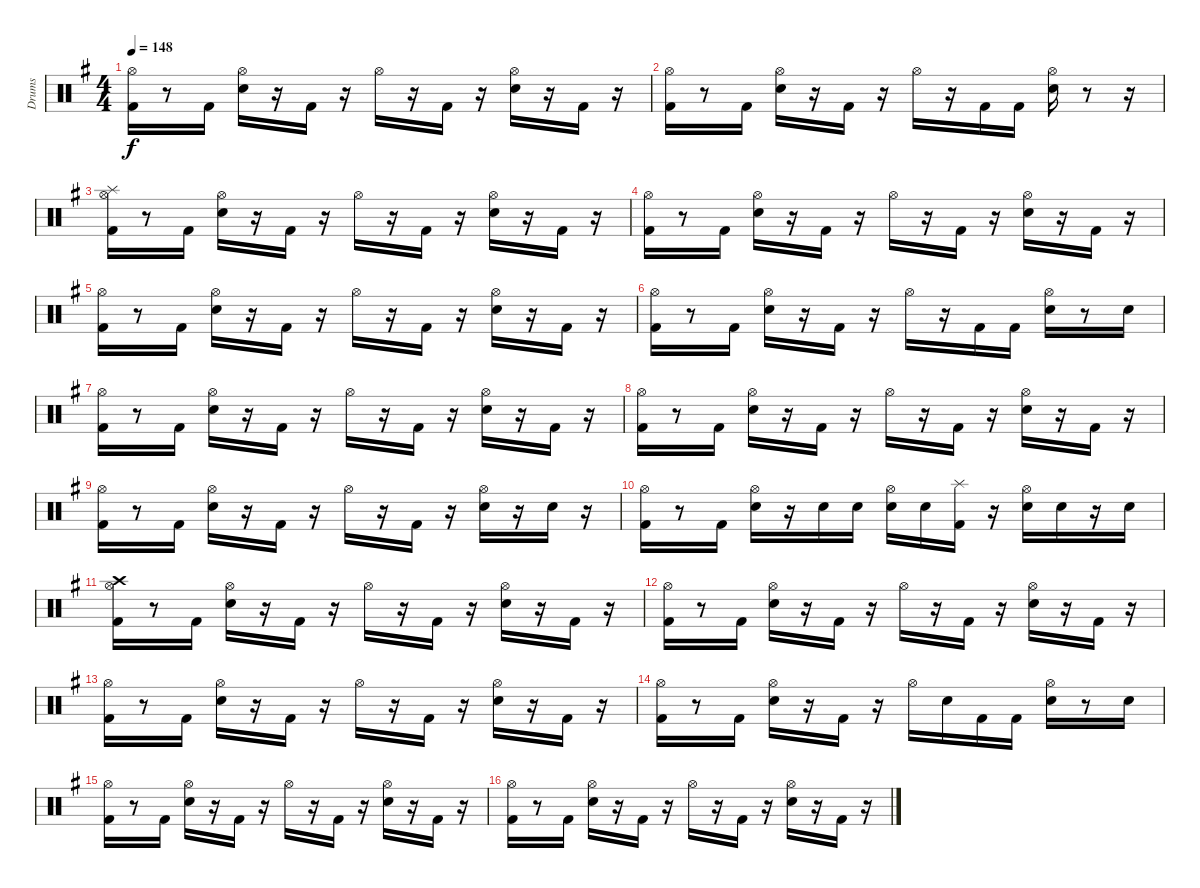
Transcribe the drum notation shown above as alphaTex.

\track ("Drums" "Drums") {instrument percussion}
\staff {score}
\articulation defaults
\ts (4 4)
\tempo 148
\clef neutral
\ks g
("Hi-Hat (open)" "Kick (hit) 2").16{dy f} r.8 "Kick (hit) 2".16 ("Hi-Hat (open)" "Snare (hit) 2").16 r.16 "Kick (hit) 2".16 r.16 "Hi-Hat (open)".16 r.16 "Kick (hit) 2".16 r.16 ("Hi-Hat (open)" "Snare (hit) 2").16 r.16 "Kick (hit) 2".16 r.16 |
("Hi-Hat (open)" "Kick (hit) 2").16 r.8 "Kick (hit) 2".16 ("Hi-Hat (open)" "Snare (hit) 2").16 r.16 "Kick (hit) 2".16 r.16 "Hi-Hat (open)".16 r.16 "Kick (hit) 2".16 "Kick (hit) 2".16 ("Hi-Hat (open)" "Snare (hit) 2").16 r.8 r.16 |
("Hi-Hat (open)" "Splash (hit)" "Kick (hit) 2").16 r.8 "Kick (hit) 2".16 ("Hi-Hat (open)" "Snare (hit) 2").16 r.16 "Kick (hit) 2".16 r.16 "Hi-Hat (open)".16 r.16 "Kick (hit) 2".16 r.16 ("Hi-Hat (open)" "Snare (hit) 2").16 r.16 "Kick (hit) 2".16 r.16 |
("Hi-Hat (open)" "Kick (hit) 2").16 r.8 "Kick (hit) 2".16 ("Hi-Hat (open)" "Snare (hit) 2").16 r.16 "Kick (hit) 2".16 r.16 "Hi-Hat (open)".16 r.16 "Kick (hit) 2".16 r.16 ("Hi-Hat (open)" "Snare (hit) 2").16 r.16 "Kick (hit) 2".16 r.16 |
("Hi-Hat (open)" "Kick (hit) 2").16 r.8 "Kick (hit) 2".16 ("Hi-Hat (open)" "Snare (hit) 2").16 r.16 "Kick (hit) 2".16 r.16 "Hi-Hat (open)".16 r.16 "Kick (hit) 2".16 r.16 ("Hi-Hat (open)" "Snare (hit) 2").16 r.16 "Kick (hit) 2".16 r.16 |
("Hi-Hat (open)" "Kick (hit) 2").16 r.8 "Kick (hit) 2".16 ("Hi-Hat (open)" "Snare (hit) 2").16 r.16 "Kick (hit) 2".16 r.16 "Hi-Hat (open)".16 r.16 "Kick (hit) 2".16 "Kick (hit) 2".16 ("Hi-Hat (open)" "Snare (hit) 2").16 r.8 "Snare (hit) 2".16 |
("Hi-Hat (open)" "Kick (hit) 2").16 r.8 "Kick (hit) 2".16 ("Hi-Hat (open)" "Snare (hit) 2").16 r.16 "Kick (hit) 2".16 r.16 "Hi-Hat (open)".16 r.16 "Kick (hit) 2".16 r.16 ("Hi-Hat (open)" "Snare (hit) 2").16 r.16 "Kick (hit) 2".16 r.16 |
("Hi-Hat (open)" "Kick (hit) 2").16 r.8 "Kick (hit) 2".16 ("Hi-Hat (open)" "Snare (hit) 2").16 r.16 "Kick (hit) 2".16 r.16 "Hi-Hat (open)".16 r.16 "Kick (hit) 2".16 r.16 ("Hi-Hat (open)" "Snare (hit) 2").16 r.16 "Kick (hit) 2".16 r.16 |
("Hi-Hat (open)" "Kick (hit) 2").16 r.8 "Kick (hit) 2".16 ("Hi-Hat (open)" "Snare (hit) 2").16 r.16 "Kick (hit) 2".16 r.16 "Hi-Hat (open)".16 r.16 "Kick (hit) 2".16 r.16 ("Hi-Hat (open)" "Snare (hit) 2").16 r.16 "Snare (hit) 2".16 r.16 |
("Hi-Hat (open)" "Kick (hit) 2").16 r.8 "Kick (hit) 2".16 ("Hi-Hat (open)" "Snare (hit) 2").16 r.16 "Snare (hit) 2".16 "Snare (hit) 2".16 ("Hi-Hat (open)" "Snare (hit) 2").16 "Snare (hit) 2".16 ("Splash (hit)" "Kick (hit) 2").16 r.16 ("Hi-Hat (open)" "Snare (hit) 2").16 "Snare (hit) 2".16 r.16 "Snare (hit) 2".16 |
("Hi-Hat (open)" "Crash high (hit)" "Kick (hit) 2").16 r.8 "Kick (hit) 2".16 ("Hi-Hat (open)" "Snare (hit) 2").16 r.16 "Kick (hit) 2".16 r.16 "Hi-Hat (open)".16 r.16 "Kick (hit) 2".16 r.16 ("Hi-Hat (open)" "Snare (hit) 2").16 r.16 "Kick (hit) 2".16 r.16 |
("Hi-Hat (open)" "Kick (hit) 2").16 r.8 "Kick (hit) 2".16 ("Hi-Hat (open)" "Snare (hit) 2").16 r.16 "Kick (hit) 2".16 r.16 "Hi-Hat (open)".16 r.16 "Kick (hit) 2".16 r.16 ("Hi-Hat (open)" "Snare (hit) 2").16 r.16 "Kick (hit) 2".16 r.16 |
("Hi-Hat (open)" "Kick (hit) 2").16 r.8 "Kick (hit) 2".16 ("Hi-Hat (open)" "Snare (hit) 2").16 r.16 "Kick (hit) 2".16 r.16 "Hi-Hat (open)".16 r.16 "Kick (hit) 2".16 r.16 ("Hi-Hat (open)" "Snare (hit) 2").16 r.16 "Kick (hit) 2".16 r.16 |
("Hi-Hat (open)" "Kick (hit) 2").16 r.8 "Kick (hit) 2".16 ("Hi-Hat (open)" "Snare (hit) 2").16 r.16 "Kick (hit) 2".16 r.16 "Hi-Hat (open)".16 "Snare (hit) 2".16 "Kick (hit) 2".16 "Kick (hit) 2".16 ("Hi-Hat (open)" "Snare (hit) 2").16 r.8 "Snare (hit) 2".16 |
("Hi-Hat (open)" "Kick (hit) 2").16 r.8 "Kick (hit) 2".16 ("Hi-Hat (open)" "Snare (hit) 2").16 r.16 "Kick (hit) 2".16 r.16 "Hi-Hat (open)".16 r.16 "Kick (hit) 2".16 r.16 ("Hi-Hat (open)" "Snare (hit) 2").16 r.16 "Kick (hit) 2".16 r.16 |
("Hi-Hat (open)" "Kick (hit) 2").16 r.8 "Kick (hit) 2".16 ("Hi-Hat (open)" "Snare (hit) 2").16 r.16 "Kick (hit) 2".16 r.16 "Hi-Hat (open)".16 r.16 "Kick (hit) 2".16 r.16 ("Hi-Hat (open)" "Snare (hit) 2").16 r.16 "Kick (hit) 2".16 r.16
